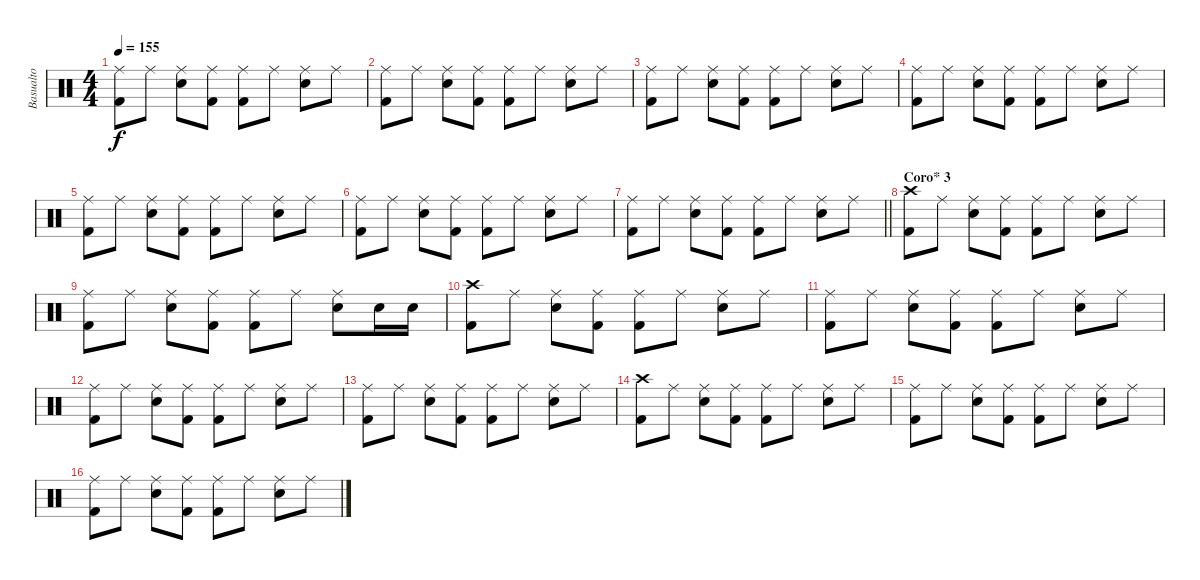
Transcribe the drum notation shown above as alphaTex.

\track ("Basualto" "Basualto") {instrument percussion}
\staff {score}
\articulation defaults
\ts (4 4)
\tempo 155
\clef neutral
\ks c
("Ride (middle)" "Kick (hit) 2").8{dy f} "Ride (middle)".8 ("Ride (middle)" "Electric Snare (hit)").8 ("Ride (middle)" "Kick (hit) 2").8 ("Ride (middle)" "Kick (hit) 2").8 "Ride (middle)".8 ("Ride (middle)" "Electric Snare (hit)").8 "Ride (middle)".8 |
("Ride (middle)" "Kick (hit) 2").8 "Ride (middle)".8 ("Ride (middle)" "Electric Snare (hit)").8 ("Ride (middle)" "Kick (hit) 2").8 ("Ride (middle)" "Kick (hit) 2").8 "Ride (middle)".8 ("Ride (middle)" "Electric Snare (hit)").8 "Ride (middle)".8 |
("Ride (middle)" "Kick (hit) 2").8 "Ride (middle)".8 ("Ride (middle)" "Electric Snare (hit)").8 ("Ride (middle)" "Kick (hit) 2").8 ("Ride (middle)" "Kick (hit) 2").8 "Ride (middle)".8 ("Ride (middle)" "Electric Snare (hit)").8 "Ride (middle)".8 |
("Ride (middle)" "Kick (hit) 2").8 "Ride (middle)".8 ("Ride (middle)" "Electric Snare (hit)").8 ("Ride (middle)" "Kick (hit) 2").8 ("Ride (middle)" "Kick (hit) 2").8 "Ride (middle)".8 ("Ride (middle)" "Electric Snare (hit)").8 "Ride (middle)".8 |
("Ride (middle)" "Kick (hit) 2").8 "Ride (middle)".8 ("Ride (middle)" "Electric Snare (hit)").8 ("Ride (middle)" "Kick (hit) 2").8 ("Ride (middle)" "Kick (hit) 2").8 "Ride (middle)".8 ("Ride (middle)" "Electric Snare (hit)").8 "Ride (middle)".8 |
("Ride (middle)" "Kick (hit) 2").8 "Ride (middle)".8 ("Ride (middle)" "Electric Snare (hit)").8 ("Ride (middle)" "Kick (hit) 2").8 ("Ride (middle)" "Kick (hit) 2").8 "Ride (middle)".8 ("Ride (middle)" "Electric Snare (hit)").8 "Ride (middle)".8 |
\barLineRight lightlight
("Ride (middle)" "Kick (hit) 2").8 "Ride (middle)".8 ("Ride (middle)" "Electric Snare (hit)").8 ("Ride (middle)" "Kick (hit) 2").8 ("Ride (middle)" "Kick (hit) 2").8 "Ride (middle)".8 ("Ride (middle)" "Electric Snare (hit)").8 "Ride (middle)".8 |
\section ("" "Coro* 3")
("Crash high (hit)" "Kick (hit) 2").8 "Ride (middle)".8 ("Ride (middle)" "Electric Snare (hit)").8 ("Ride (middle)" "Kick (hit) 2").8 ("Ride (middle)" "Kick (hit) 2").8 "Ride (middle)".8 ("Ride (middle)" "Electric Snare (hit)").8 "Ride (middle)".8 |
("Ride (middle)" "Kick (hit) 2").8 "Ride (middle)".8 ("Ride (middle)" "Electric Snare (hit)").8 ("Ride (middle)" "Kick (hit) 2").8 ("Ride (middle)" "Kick (hit) 2").8 "Ride (middle)".8 ("Ride (middle)" "Electric Snare (hit)").8 "Electric Snare (hit)".16 "Electric Snare (hit)".16 |
("Crash high (hit)" "Kick (hit) 2").8 "Ride (middle)".8 ("Ride (middle)" "Electric Snare (hit)").8 ("Ride (middle)" "Kick (hit) 2").8 ("Ride (middle)" "Kick (hit) 2").8 "Ride (middle)".8 ("Ride (middle)" "Electric Snare (hit)").8 "Ride (middle)".8 |
("Ride (middle)" "Kick (hit) 2").8 "Ride (middle)".8 ("Ride (middle)" "Electric Snare (hit)").8 ("Ride (middle)" "Kick (hit) 2").8 ("Ride (middle)" "Kick (hit) 2").8 "Ride (middle)".8 ("Ride (middle)" "Electric Snare (hit)").8 "Ride (middle)".8 |
("Ride (middle)" "Kick (hit) 2").8 "Ride (middle)".8 ("Ride (middle)" "Electric Snare (hit)").8 ("Ride (middle)" "Kick (hit) 2").8 ("Ride (middle)" "Kick (hit) 2").8 "Ride (middle)".8 ("Ride (middle)" "Electric Snare (hit)").8 "Ride (middle)".8 |
("Ride (middle)" "Kick (hit) 2").8 "Ride (middle)".8 ("Ride (middle)" "Electric Snare (hit)").8 ("Ride (middle)" "Kick (hit) 2").8 ("Ride (middle)" "Kick (hit) 2").8 "Ride (middle)".8 ("Ride (middle)" "Electric Snare (hit)").8 "Ride (middle)".8 |
("Crash high (hit)" "Kick (hit) 2").8 "Ride (middle)".8 ("Ride (middle)" "Electric Snare (hit)").8 ("Ride (middle)" "Kick (hit) 2").8 ("Ride (middle)" "Kick (hit) 2").8 "Ride (middle)".8 ("Ride (middle)" "Electric Snare (hit)").8 "Ride (middle)".8 |
("Ride (middle)" "Kick (hit) 2").8 "Ride (middle)".8 ("Ride (middle)" "Electric Snare (hit)").8 ("Ride (middle)" "Kick (hit) 2").8 ("Ride (middle)" "Kick (hit) 2").8 "Ride (middle)".8 ("Ride (middle)" "Electric Snare (hit)").8 "Ride (middle)".8 |
("Ride (middle)" "Kick (hit) 2").8 "Ride (middle)".8 ("Ride (middle)" "Electric Snare (hit)").8 ("Ride (middle)" "Kick (hit) 2").8 ("Ride (middle)" "Kick (hit) 2").8 "Ride (middle)".8 ("Ride (middle)" "Electric Snare (hit)").8 "Ride (middle)".8
